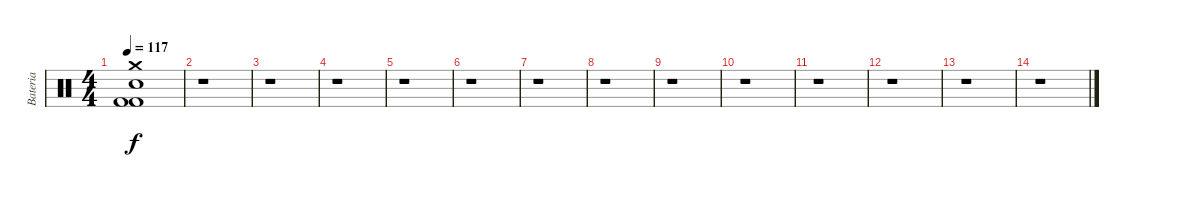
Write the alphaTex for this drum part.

\track ("Bateria" "Bateria") {instrument percussion}
\staff {score}
\articulation defaults
\ts (4 4)
\tempo 117
\clef neutral
\ks c
("Kick (hit) 2" "Kick (hit) 2" "Snare (hit) 2" "Crash medium (hit)").1{dy f} |
r.1 |
r.1 |
r.1 |
r.1 |
r.1 |
r.1 |
r.1 |
r.1 |
r.1 |
r.1 |
r.1 |
r.1 |
r.1
